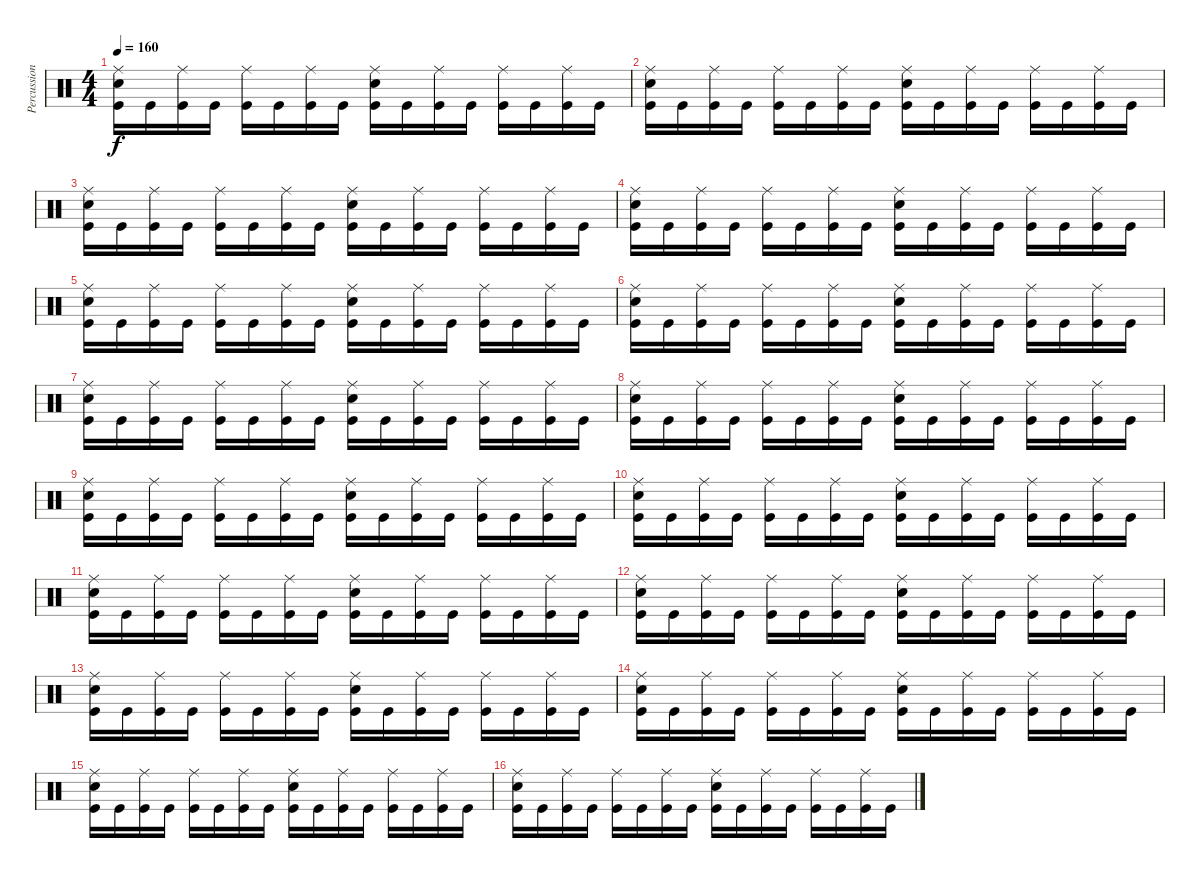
\track ("Percussions" "Percussion") {instrument percussion}
\staff {score}
\articulation defaults
\ts (4 4)
\tempo 160
\clef neutral
\ks c
("Ride (middle)" "Snare (hit) 2" "Kick (hit)").16{dy f} "Kick (hit)".16 ("Ride (middle)" "Kick (hit)").16 "Kick (hit)".16 ("Ride (middle)" "Kick (hit)").16 "Kick (hit)".16 ("Ride (middle)" "Kick (hit)").16 "Kick (hit)".16 ("Ride (middle)" "Snare (hit) 2" "Kick (hit)").16 "Kick (hit)".16 ("Ride (middle)" "Kick (hit)").16 "Kick (hit)".16 ("Ride (middle)" "Kick (hit)").16 "Kick (hit)".16 ("Ride (middle)" "Kick (hit)").16 "Kick (hit)".16 |
("Ride (middle)" "Snare (hit) 2" "Kick (hit)").16 "Kick (hit)".16 ("Ride (middle)" "Kick (hit)").16 "Kick (hit)".16 ("Ride (middle)" "Kick (hit)").16 "Kick (hit)".16 ("Ride (middle)" "Kick (hit)").16 "Kick (hit)".16 ("Ride (middle)" "Snare (hit) 2" "Kick (hit)").16 "Kick (hit)".16 ("Ride (middle)" "Kick (hit)").16 "Kick (hit)".16 ("Ride (middle)" "Kick (hit)").16 "Kick (hit)".16 ("Ride (middle)" "Kick (hit)").16 "Kick (hit)".16 |
("Ride (middle)" "Snare (hit) 2" "Kick (hit)").16 "Kick (hit)".16 ("Ride (middle)" "Kick (hit)").16 "Kick (hit)".16 ("Ride (middle)" "Kick (hit)").16 "Kick (hit)".16 ("Ride (middle)" "Kick (hit)").16 "Kick (hit)".16 ("Ride (middle)" "Snare (hit) 2" "Kick (hit)").16 "Kick (hit)".16 ("Ride (middle)" "Kick (hit)").16 "Kick (hit)".16 ("Ride (middle)" "Kick (hit)").16 "Kick (hit)".16 ("Ride (middle)" "Kick (hit)").16 "Kick (hit)".16 |
("Ride (middle)" "Snare (hit) 2" "Kick (hit)").16 "Kick (hit)".16 ("Ride (middle)" "Kick (hit)").16 "Kick (hit)".16 ("Ride (middle)" "Kick (hit)").16 "Kick (hit)".16 ("Ride (middle)" "Kick (hit)").16 "Kick (hit)".16 ("Ride (middle)" "Snare (hit) 2" "Kick (hit)").16 "Kick (hit)".16 ("Ride (middle)" "Kick (hit)").16 "Kick (hit)".16 ("Ride (middle)" "Kick (hit)").16 "Kick (hit)".16 ("Ride (middle)" "Kick (hit)").16 "Kick (hit)".16 |
("Ride (middle)" "Snare (hit) 2" "Kick (hit)").16 "Kick (hit)".16 ("Ride (middle)" "Kick (hit)").16 "Kick (hit)".16 ("Ride (middle)" "Kick (hit)").16 "Kick (hit)".16 ("Ride (middle)" "Kick (hit)").16 "Kick (hit)".16 ("Ride (middle)" "Snare (hit) 2" "Kick (hit)").16 "Kick (hit)".16 ("Ride (middle)" "Kick (hit)").16 "Kick (hit)".16 ("Ride (middle)" "Kick (hit)").16 "Kick (hit)".16 ("Ride (middle)" "Kick (hit)").16 "Kick (hit)".16 |
("Ride (middle)" "Snare (hit) 2" "Kick (hit)").16 "Kick (hit)".16 ("Ride (middle)" "Kick (hit)").16 "Kick (hit)".16 ("Ride (middle)" "Kick (hit)").16 "Kick (hit)".16 ("Ride (middle)" "Kick (hit)").16 "Kick (hit)".16 ("Ride (middle)" "Snare (hit) 2" "Kick (hit)").16 "Kick (hit)".16 ("Ride (middle)" "Kick (hit)").16 "Kick (hit)".16 ("Ride (middle)" "Kick (hit)").16 "Kick (hit)".16 ("Ride (middle)" "Kick (hit)").16 "Kick (hit)".16 |
("Ride (middle)" "Snare (hit) 2" "Kick (hit)").16 "Kick (hit)".16 ("Ride (middle)" "Kick (hit)").16 "Kick (hit)".16 ("Ride (middle)" "Kick (hit)").16 "Kick (hit)".16 ("Ride (middle)" "Kick (hit)").16 "Kick (hit)".16 ("Ride (middle)" "Snare (hit) 2" "Kick (hit)").16 "Kick (hit)".16 ("Ride (middle)" "Kick (hit)").16 "Kick (hit)".16 ("Ride (middle)" "Kick (hit)").16 "Kick (hit)".16 ("Ride (middle)" "Kick (hit)").16 "Kick (hit)".16 |
("Ride (middle)" "Snare (hit) 2" "Kick (hit)").16 "Kick (hit)".16 ("Ride (middle)" "Kick (hit)").16 "Kick (hit)".16 ("Ride (middle)" "Kick (hit)").16 "Kick (hit)".16 ("Ride (middle)" "Kick (hit)").16 "Kick (hit)".16 ("Ride (middle)" "Snare (hit) 2" "Kick (hit)").16 "Kick (hit)".16 ("Ride (middle)" "Kick (hit)").16 "Kick (hit)".16 ("Ride (middle)" "Kick (hit)").16 "Kick (hit)".16 ("Ride (middle)" "Kick (hit)").16 "Kick (hit)".16 |
("Ride (middle)" "Snare (hit) 2" "Kick (hit)").16 "Kick (hit)".16 ("Ride (middle)" "Kick (hit)").16 "Kick (hit)".16 ("Ride (middle)" "Kick (hit)").16 "Kick (hit)".16 ("Ride (middle)" "Kick (hit)").16 "Kick (hit)".16 ("Ride (middle)" "Snare (hit) 2" "Kick (hit)").16 "Kick (hit)".16 ("Ride (middle)" "Kick (hit)").16 "Kick (hit)".16 ("Ride (middle)" "Kick (hit)").16 "Kick (hit)".16 ("Ride (middle)" "Kick (hit)").16 "Kick (hit)".16 |
("Ride (middle)" "Snare (hit) 2" "Kick (hit)").16 "Kick (hit)".16 ("Ride (middle)" "Kick (hit)").16 "Kick (hit)".16 ("Ride (middle)" "Kick (hit)").16 "Kick (hit)".16 ("Ride (middle)" "Kick (hit)").16 "Kick (hit)".16 ("Ride (middle)" "Snare (hit) 2" "Kick (hit)").16 "Kick (hit)".16 ("Ride (middle)" "Kick (hit)").16 "Kick (hit)".16 ("Ride (middle)" "Kick (hit)").16 "Kick (hit)".16 ("Ride (middle)" "Kick (hit)").16 "Kick (hit)".16 |
("Ride (middle)" "Snare (hit) 2" "Kick (hit)").16 "Kick (hit)".16 ("Ride (middle)" "Kick (hit)").16 "Kick (hit)".16 ("Ride (middle)" "Kick (hit)").16 "Kick (hit)".16 ("Ride (middle)" "Kick (hit)").16 "Kick (hit)".16 ("Ride (middle)" "Snare (hit) 2" "Kick (hit)").16 "Kick (hit)".16 ("Ride (middle)" "Kick (hit)").16 "Kick (hit)".16 ("Ride (middle)" "Kick (hit)").16 "Kick (hit)".16 ("Ride (middle)" "Kick (hit)").16 "Kick (hit)".16 |
("Ride (middle)" "Snare (hit) 2" "Kick (hit)").16 "Kick (hit)".16 ("Ride (middle)" "Kick (hit)").16 "Kick (hit)".16 ("Ride (middle)" "Kick (hit)").16 "Kick (hit)".16 ("Ride (middle)" "Kick (hit)").16 "Kick (hit)".16 ("Ride (middle)" "Snare (hit) 2" "Kick (hit)").16 "Kick (hit)".16 ("Ride (middle)" "Kick (hit)").16 "Kick (hit)".16 ("Ride (middle)" "Kick (hit)").16 "Kick (hit)".16 ("Ride (middle)" "Kick (hit)").16 "Kick (hit)".16 |
("Ride (middle)" "Snare (hit) 2" "Kick (hit)").16 "Kick (hit)".16 ("Ride (middle)" "Kick (hit)").16 "Kick (hit)".16 ("Ride (middle)" "Kick (hit)").16 "Kick (hit)".16 ("Ride (middle)" "Kick (hit)").16 "Kick (hit)".16 ("Ride (middle)" "Snare (hit) 2" "Kick (hit)").16 "Kick (hit)".16 ("Ride (middle)" "Kick (hit)").16 "Kick (hit)".16 ("Ride (middle)" "Kick (hit)").16 "Kick (hit)".16 ("Ride (middle)" "Kick (hit)").16 "Kick (hit)".16 |
("Ride (middle)" "Snare (hit) 2" "Kick (hit)").16 "Kick (hit)".16 ("Ride (middle)" "Kick (hit)").16 "Kick (hit)".16 ("Ride (middle)" "Kick (hit)").16 "Kick (hit)".16 ("Ride (middle)" "Kick (hit)").16 "Kick (hit)".16 ("Ride (middle)" "Snare (hit) 2" "Kick (hit)").16 "Kick (hit)".16 ("Ride (middle)" "Kick (hit)").16 "Kick (hit)".16 ("Ride (middle)" "Kick (hit)").16 "Kick (hit)".16 ("Ride (middle)" "Kick (hit)").16 "Kick (hit)".16 |
("Ride (middle)" "Snare (hit) 2" "Kick (hit)").16 "Kick (hit)".16 ("Ride (middle)" "Kick (hit)").16 "Kick (hit)".16 ("Ride (middle)" "Kick (hit)").16 "Kick (hit)".16 ("Ride (middle)" "Kick (hit)").16 "Kick (hit)".16 ("Ride (middle)" "Snare (hit) 2" "Kick (hit)").16 "Kick (hit)".16 ("Ride (middle)" "Kick (hit)").16 "Kick (hit)".16 ("Ride (middle)" "Kick (hit)").16 "Kick (hit)".16 ("Ride (middle)" "Kick (hit)").16 "Kick (hit)".16 |
("Ride (middle)" "Snare (hit) 2" "Kick (hit)").16 "Kick (hit)".16 ("Ride (middle)" "Kick (hit)").16 "Kick (hit)".16 ("Ride (middle)" "Kick (hit)").16 "Kick (hit)".16 ("Ride (middle)" "Kick (hit)").16 "Kick (hit)".16 ("Ride (middle)" "Snare (hit) 2" "Kick (hit)").16 "Kick (hit)".16 ("Ride (middle)" "Kick (hit)").16 "Kick (hit)".16 ("Ride (middle)" "Kick (hit)").16 "Kick (hit)".16 ("Ride (middle)" "Kick (hit)").16 "Kick (hit)".16
